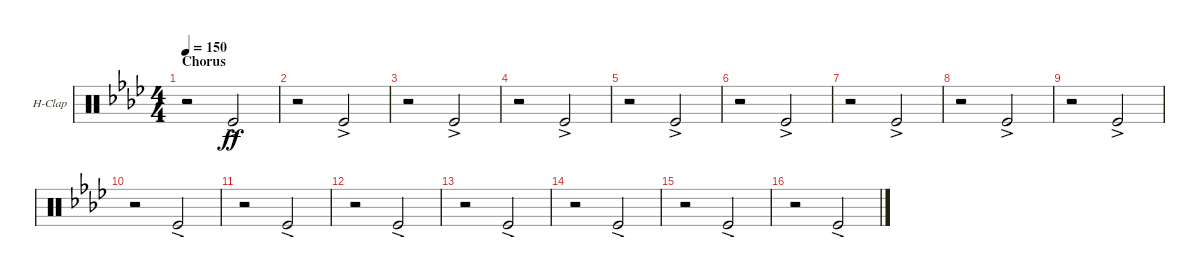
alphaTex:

\bracketExtendMode groupsimilarinstruments
\firstSystemTrackNameOrientation horizontal
\otherSystemsTrackNameOrientation horizontal
\track ("Hand Clap" "H-Clap") {instrument percussion}
\staff {score}
\articulation defaults
\ts (4 4)
\section ("" "Chorus")
\tempo 150
\clef neutral
\scale
0.333333
\ks ab
r.2{dy ff} "Kick (hit)"{ac}.2 |
\scale
0.333333 r.2 "Kick (hit)"{ac}.2 |
\scale
0.333333 r.2 "Kick (hit)"{ac}.2 |
\scale
0.333333 r.2 "Kick (hit)"{ac}.2 |
\scale
0.333333 r.2 "Kick (hit)"{ac}.2 |
\scale
0.333333 r.2 "Kick (hit)"{ac}.2 |
\scale
0.333333 r.2 "Kick (hit)"{ac}.2 |
\scale
0.333333 r.2 "Kick (hit)"{ac}.2 |
\scale
0.333333 r.2 "Kick (hit)"{ac}.2 |
\scale
0.333333 r.2 "Kick (hit)"{ac}.2 |
\scale
0.333333 r.2 "Kick (hit)"{ac}.2 |
\scale
0.333333 r.2 "Kick (hit)"{ac}.2 |
\scale
0.333333 r.2 "Kick (hit)"{ac}.2 |
\scale
0.333333 r.2 "Kick (hit)"{ac}.2 |
\scale
0.333333 r.2 "Kick (hit)"{ac}.2 |
\scale
0.333333 r.2 "Kick (hit)"{ac}.2
